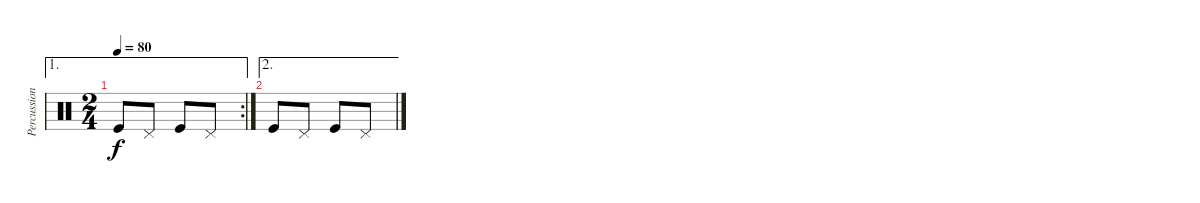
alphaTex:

\track ("Percussion" "Percussion") {instrument percussion}
\staff {score}
\articulation defaults
\ae 1
\rc 2
\ts (2 4)
\tempo 80
\clef neutral
\ks c "Kick (hit)".8{dy f} "Pedal Hi-Hat (hit)".8 "Kick (hit)".8 "Pedal Hi-Hat (hit)".8
|
\ae 2 "Kick (hit)".8 "Pedal Hi-Hat (hit)".8 "Kick (hit)".8 "Pedal Hi-Hat (hit)".8
